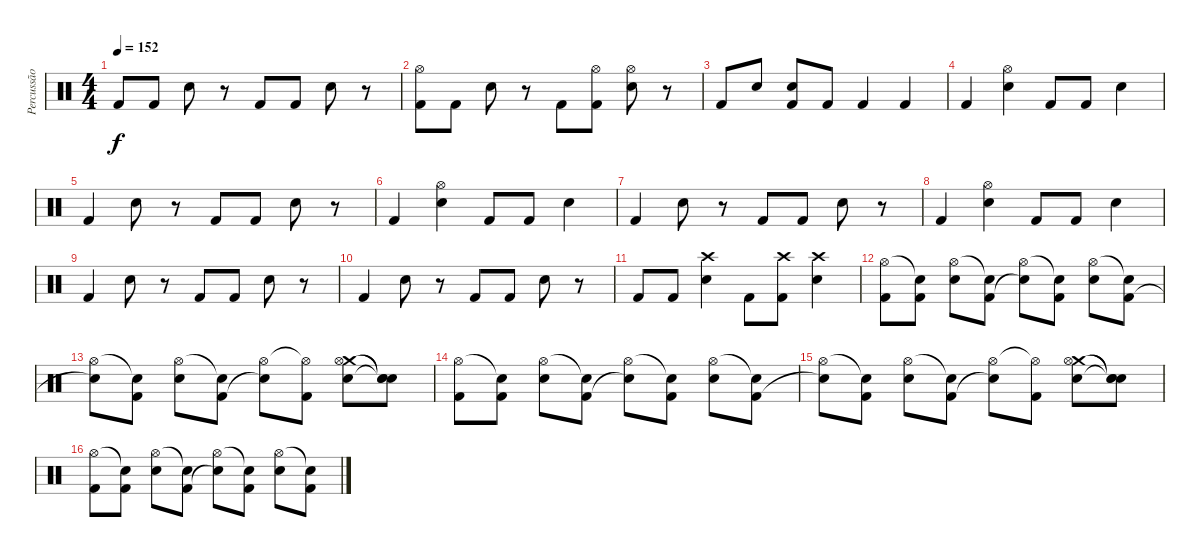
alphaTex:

\track ("Percussão" "Percussão") {instrument percussion}
\staff {score}
\articulation defaults
\ts (4 4)
\tempo 152
\clef neutral
\ks c "Kick (hit) 2".8{dy f} "Kick (hit) 2".8 "Snare (hit) 2".8
r.8 "Kick (hit) 2".8 "Kick (hit) 2".8 "Snare (hit) 2".8 r.8 |
("Hi-Hat (open)" "Kick (hit) 2").8 "Kick (hit) 2".8 "Snare (hit) 2".8 r.8 "Kick (hit) 2".8 ("Hi-Hat (open)" "Kick (hit) 2").8 ("Hi-Hat (open)" "Snare (hit) 2").8 r.8 |
"Kick (hit) 2".8 "Snare (hit) 2".8 ("Snare (hit) 2" "Kick (hit) 2").8 "Kick (hit) 2".8 "Kick (hit) 2".4 "Kick (hit) 2".4 |
"Kick (hit) 2".4 ("Hi-Hat (open)" "Snare (hit) 2").4 "Kick (hit) 2".8 "Kick (hit) 2".8 "Snare (hit) 2".4 |
"Kick (hit) 2".4 "Snare (hit) 2".8 r.8 "Kick (hit) 2".8 "Kick (hit) 2".8 "Snare (hit) 2".8 r.8 |
"Kick (hit) 2".4 ("Hi-Hat (open)" "Snare (hit) 2").4 "Kick (hit) 2".8 "Kick (hit) 2".8 "Snare (hit) 2".4 |
"Kick (hit) 2".4 "Snare (hit) 2".8 r.8 "Kick (hit) 2".8 "Kick (hit) 2".8 "Snare (hit) 2".8 r.8 |
"Kick (hit) 2".4 ("Hi-Hat (open)" "Snare (hit) 2").4 "Kick (hit) 2".8 "Kick (hit) 2".8 "Snare (hit) 2".4 |
"Kick (hit) 2".4 "Snare (hit) 2".8 r.8 "Kick (hit) 2".8 "Kick (hit) 2".8 "Snare (hit) 2".8 r.8 |
"Kick (hit) 2".4 "Snare (hit) 2".8 r.8 "Kick (hit) 2".8 "Kick (hit) 2".8 "Snare (hit) 2".8 r.8 |
"Kick (hit) 2".8 "Kick (hit) 2".8 ("Crash high (hit)" "Snare (hit) 2").4 "Kick (hit) 2".8 ("Crash high (hit)" "Kick (hit) 2").8 ("Crash high (hit)" "Snare (hit) 2").4 |
("Hi-Hat (open)" "Kick (hit) 2").8 ("Snare (hit)"{t} "Kick (hit) 2").8 ("Hi-Hat (open)" "Snare (hit) 2").8 ("Snare (hit)"{t} "Kick (hit) 2").8 ("Hi-Hat (open)" "Snare (hit)"{t}).8 ("Snare (hit)"{t} "Kick (hit) 2").8 ("Hi-Hat (open)" "Snare (hit) 2").8 ("Snare (hit)"{t} "Kick (hit) 2").8 |
("Hi-Hat (open)" "Snare (hit)"{t}).8 ("Snare (hit)"{t} "Kick (hit) 2").8 ("Hi-Hat (open)" "Snare (hit) 2").8 ("Snare (hit)"{t} "Kick (hit) 2").8 ("Hi-Hat (open)" "Snare (hit)"{t}).8 ("Hi-Hat (open)"{t} "Kick (hit) 2").8 ("Crash medium (hit)" "Snare (hit) 2" "Hi-Hat (open)").8 ("Snare (hit)"{t} "Snare (hit)"{t} "Snare (hit)"{t}).8 |
("Hi-Hat (open)" "Kick (hit) 2").8 ("Snare (hit)"{t} "Kick (hit) 2").8 ("Hi-Hat (open)" "Snare (hit) 2").8 ("Snare (hit)"{t} "Kick (hit) 2").8 ("Hi-Hat (open)" "Snare (hit)"{t}).8 ("Snare (hit)"{t} "Kick (hit) 2").8 ("Hi-Hat (open)" "Snare (hit) 2").8 ("Snare (hit)"{t} "Kick (hit) 2").8 |
("Hi-Hat (open)" "Snare (hit)"{t}).8 ("Snare (hit)"{t} "Kick (hit) 2").8 ("Hi-Hat (open)" "Snare (hit) 2").8 ("Snare (hit)"{t} "Kick (hit) 2").8 ("Hi-Hat (open)" "Snare (hit)"{t}).8 ("Hi-Hat (open)"{t} "Kick (hit) 2").8 ("Crash medium (hit)" "Snare (hit) 2" "Hi-Hat (open)").8 ("Snare (hit)"{t} "Snare (hit)"{t} "Snare (hit)"{t}).8 |
("Hi-Hat (open)" "Kick (hit) 2").8 ("Snare (hit)"{t} "Kick (hit) 2").8 ("Hi-Hat (open)" "Snare (hit) 2").8 ("Snare (hit)"{t} "Kick (hit) 2").8 ("Hi-Hat (open)" "Snare (hit)"{t}).8 ("Snare (hit)"{t} "Kick (hit) 2").8 ("Hi-Hat (open)" "Snare (hit) 2").8 ("Snare (hit)"{t} "Kick (hit) 2").8
